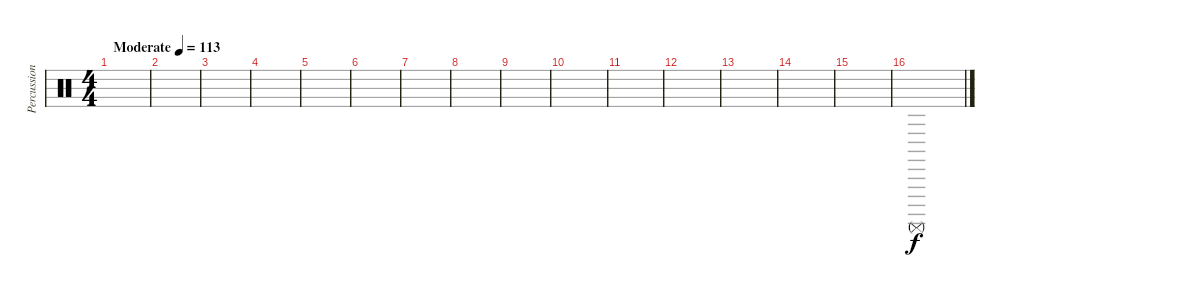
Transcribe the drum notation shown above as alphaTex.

\track ("Percussion" "Percussion") {instrument percussion}
\staff {score}
\articulation defaults
\ts (4 4)
\tempo (113 "Moderate")
\clef neutral
\ks c
|
|
|
|
|
|
|
|
|
|
|
|
|
|
|
"Surdo (mute)".1
